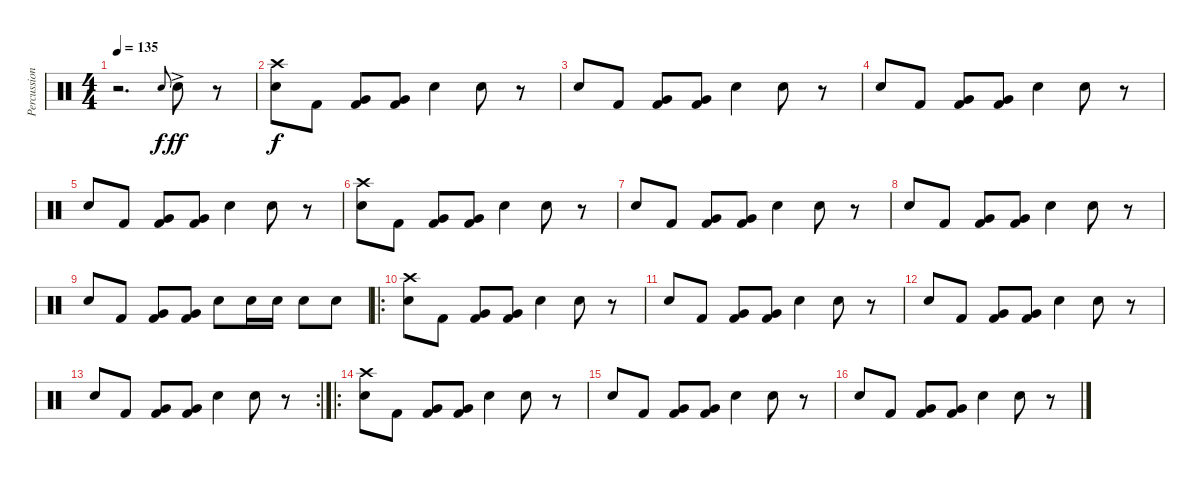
\track ("Percussion" "Percussion") {instrument percussion}
\staff {score}
\articulation defaults
\ts (4 4)
\tempo 135
\clef neutral
\ks c
r.2{d dy f} "Snare (hit) 2".8{gr onbeat} "Snare (hit) 2"{ac}.8{dy ff} r.8 |
("Crash high (hit)" "Snare (hit) 2").8{dy f} "Kick (hit) 2".8 ("Very Low Tom (hit)" "Kick (hit) 2").8 ("Very Low Tom (hit)" "Kick (hit) 2").8 "Snare (hit) 2".4 "Snare (hit) 2".8 r.8 |
"Snare (hit) 2".8 "Kick (hit) 2".8 ("Very Low Tom (hit)" "Kick (hit) 2").8 ("Very Low Tom (hit)" "Kick (hit) 2").8 "Snare (hit) 2".4 "Snare (hit) 2".8 r.8 |
"Snare (hit) 2".8 "Kick (hit) 2".8 ("Very Low Tom (hit)" "Kick (hit) 2").8 ("Very Low Tom (hit)" "Kick (hit) 2").8 "Snare (hit) 2".4 "Snare (hit) 2".8 r.8 |
"Snare (hit) 2".8 "Kick (hit) 2".8 ("Very Low Tom (hit)" "Kick (hit) 2").8 ("Very Low Tom (hit)" "Kick (hit) 2").8 "Snare (hit) 2".4 "Snare (hit) 2".8 r.8 |
("Crash high (hit)" "Snare (hit) 2").8 "Kick (hit) 2".8 ("Very Low Tom (hit)" "Kick (hit) 2").8 ("Very Low Tom (hit)" "Kick (hit) 2").8 "Snare (hit) 2".4 "Snare (hit) 2".8 r.8 |
"Snare (hit) 2".8 "Kick (hit) 2".8 ("Very Low Tom (hit)" "Kick (hit) 2").8 ("Very Low Tom (hit)" "Kick (hit) 2").8 "Snare (hit) 2".4 "Snare (hit) 2".8 r.8 |
"Snare (hit) 2".8 "Kick (hit) 2".8 ("Very Low Tom (hit)" "Kick (hit) 2").8 ("Very Low Tom (hit)" "Kick (hit) 2").8 "Snare (hit) 2".4 "Snare (hit) 2".8 r.8 |
"Snare (hit) 2".8 "Kick (hit) 2".8 ("Very Low Tom (hit)" "Kick (hit) 2").8 ("Very Low Tom (hit)" "Kick (hit) 2").8 "Snare (hit) 2".8 "Snare (hit) 2".16 "Snare (hit) 2".16 "Snare (hit) 2".8 "Snare (hit) 2".8 |
\ro
("Crash high (hit)" "Snare (hit) 2").8 "Kick (hit) 2".8 ("Very Low Tom (hit)" "Kick (hit) 2").8 ("Very Low Tom (hit)" "Kick (hit) 2").8 "Snare (hit) 2".4 "Snare (hit) 2".8 r.8 |
"Snare (hit) 2".8 "Kick (hit) 2".8 ("Very Low Tom (hit)" "Kick (hit) 2").8 ("Very Low Tom (hit)" "Kick (hit) 2").8 "Snare (hit) 2".4 "Snare (hit) 2".8 r.8 |
"Snare (hit) 2".8 "Kick (hit) 2".8 ("Very Low Tom (hit)" "Kick (hit) 2").8 ("Very Low Tom (hit)" "Kick (hit) 2").8 "Snare (hit) 2".4 "Snare (hit) 2".8 r.8 |
\rc 2 "Snare (hit) 2".8 "Kick (hit) 2".8
("Very Low Tom (hit)" "Kick (hit) 2").8 ("Very Low Tom (hit)" "Kick (hit) 2").8 "Snare (hit) 2".4 "Snare (hit) 2".8 r.8 |
\ro
("Crash high (hit)" "Snare (hit) 2").8 "Kick (hit) 2".8 ("Very Low Tom (hit)" "Kick (hit) 2").8 ("Very Low Tom (hit)" "Kick (hit) 2").8 "Snare (hit) 2".4 "Snare (hit) 2".8 r.8 |
"Snare (hit) 2".8 "Kick (hit) 2".8 ("Very Low Tom (hit)" "Kick (hit) 2").8 ("Very Low Tom (hit)" "Kick (hit) 2").8 "Snare (hit) 2".4 "Snare (hit) 2".8 r.8 |
"Snare (hit) 2".8 "Kick (hit) 2".8 ("Very Low Tom (hit)" "Kick (hit) 2").8 ("Very Low Tom (hit)" "Kick (hit) 2").8 "Snare (hit) 2".4 "Snare (hit) 2".8 r.8
